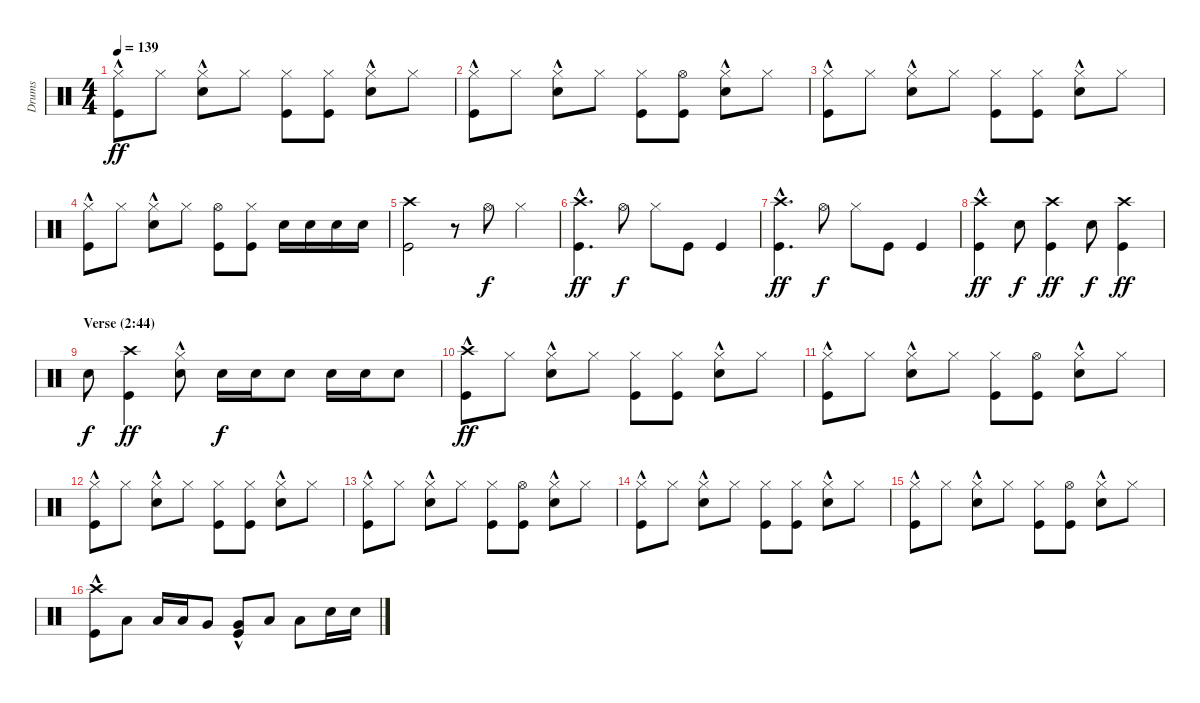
\track ("Drums" "Drums") {instrument percussion}
\staff {score}
\articulation defaults
\ts (4 4)
\tempo 139
\clef neutral
\ks c
("Hi-Hat (closed)" "Kick (hit)"{hac}).8{dy ff} "Hi-Hat (closed)".8 ("Hi-Hat (closed)" "Snare (hit) 2"{hac}).8 "Hi-Hat (closed)".8 ("Hi-Hat (closed)" "Kick (hit)").8 ("Hi-Hat (closed)" "Kick (hit)").8 ("Hi-Hat (closed)" "Snare (hit) 2"{hac}).8 "Hi-Hat (closed)".8 |
("Hi-Hat (closed)" "Kick (hit)"{hac}).8 "Hi-Hat (closed)".8 ("Hi-Hat (closed)" "Snare (hit) 2"{hac}).8 "Hi-Hat (closed)".8 ("Hi-Hat (closed)" "Kick (hit)").8 ("Hi-Hat (open)" "Kick (hit)").8 ("Hi-Hat (closed)" "Snare (hit) 2"{hac}).8 "Hi-Hat (closed)".8 |
("Hi-Hat (closed)" "Kick (hit)"{hac}).8 "Hi-Hat (closed)".8 ("Hi-Hat (closed)" "Snare (hit) 2"{hac}).8 "Hi-Hat (closed)".8 ("Hi-Hat (closed)" "Kick (hit)").8 ("Hi-Hat (closed)" "Kick (hit)").8 ("Hi-Hat (closed)" "Snare (hit) 2"{hac}).8 "Hi-Hat (closed)".8 |
("Hi-Hat (closed)" "Kick (hit)"{hac}).8 "Hi-Hat (closed)".8 ("Hi-Hat (closed)" "Snare (hit) 2"{hac}).8 "Hi-Hat (closed)".8 ("Hi-Hat (open)" "Kick (hit)").8 ("Hi-Hat (closed)" "Kick (hit)").8 "Snare (hit) 2".16 "Snare (hit) 2".16 "Snare (hit) 2".16 "Snare (hit) 2".16 |
("Crash high (hit)" "Kick (hit)").2 r.8 "Hi-Hat (open)".8{dy f} "Hi-Hat (closed)".4 |
("Crash high (hit)"{hac} "Kick (hit)"{hac}).4{d dy ff} "Hi-Hat (open)".8{dy f} "Hi-Hat (closed)".8 "Kick (hit)".8 "Kick (hit)".4 |
("Crash high (hit)"{hac} "Kick (hit)"{hac}).4{d dy ff} "Hi-Hat (open)".8{dy f} "Hi-Hat (closed)".8 "Kick (hit)".8 "Kick (hit)".4 |
("Crash high (hit)" "Kick (hit)"{hac}).4{dy ff} "Snare (hit) 2".8{dy f} ("Crash high (hit)" "Kick (hit)").4{dy ff} "Snare (hit) 2".8{dy f} ("Crash high (hit)" "Kick (hit)").4{dy ff} |
\section ("" "Verse (2:44)")
"Snare (hit) 2".8{dy f} ("Crash high (hit)" "Kick (hit)").4{dy ff} ("Hi-Hat (closed)" "Snare (hit) 2"{hac}).8 "Snare (hit) 2".16{dy f} "Snare (hit) 2".16 "Snare (hit) 2".8 "Snare (hit) 2".16 "Snare (hit) 2".16 "Snare (hit) 2".8 |
("Crash high (hit)" "Kick (hit)"{hac}).8{dy ff} "Hi-Hat (closed)".8 ("Hi-Hat (closed)" "Snare (hit) 2"{hac}).8 "Hi-Hat (closed)".8 ("Hi-Hat (closed)" "Kick (hit)").8 ("Hi-Hat (closed)" "Kick (hit)").8 ("Hi-Hat (closed)" "Snare (hit) 2"{hac}).8 "Hi-Hat (closed)".8 |
("Hi-Hat (closed)" "Kick (hit)"{hac}).8 "Hi-Hat (closed)".8 ("Hi-Hat (closed)" "Snare (hit) 2"{hac}).8 "Hi-Hat (closed)".8 ("Hi-Hat (closed)" "Kick (hit)").8 ("Hi-Hat (open)" "Kick (hit)").8 ("Hi-Hat (closed)" "Snare (hit) 2"{hac}).8 "Hi-Hat (closed)".8 |
("Hi-Hat (closed)" "Kick (hit)"{hac}).8 "Hi-Hat (closed)".8 ("Hi-Hat (closed)" "Snare (hit) 2"{hac}).8 "Hi-Hat (closed)".8 ("Hi-Hat (closed)" "Kick (hit)").8 ("Hi-Hat (closed)" "Kick (hit)").8 ("Hi-Hat (closed)" "Snare (hit) 2"{hac}).8 "Hi-Hat (closed)".8 |
("Hi-Hat (closed)" "Kick (hit)"{hac}).8 "Hi-Hat (closed)".8 ("Hi-Hat (closed)" "Snare (hit) 2"{hac}).8 "Hi-Hat (closed)".8 ("Hi-Hat (closed)" "Kick (hit)").8 ("Hi-Hat (open)" "Kick (hit)").8 ("Hi-Hat (closed)" "Snare (hit) 2"{hac}).8 "Hi-Hat (closed)".8 |
("Hi-Hat (closed)" "Kick (hit)"{hac}).8 "Hi-Hat (closed)".8 ("Hi-Hat (closed)" "Snare (hit) 2"{hac}).8 "Hi-Hat (closed)".8 ("Hi-Hat (closed)" "Kick (hit)").8 ("Hi-Hat (closed)" "Kick (hit)").8 ("Hi-Hat (closed)" "Snare (hit) 2"{hac}).8 "Hi-Hat (closed)".8 |
("Hi-Hat (closed)" "Kick (hit)"{hac}).8 "Hi-Hat (closed)".8 ("Hi-Hat (closed)" "Snare (hit) 2"{hac}).8 "Hi-Hat (closed)".8 ("Hi-Hat (closed)" "Kick (hit)").8 ("Hi-Hat (open)" "Kick (hit)").8 ("Hi-Hat (closed)" "Snare (hit) 2"{hac}).8 "Hi-Hat (closed)".8 |
("Crash high (hit)" "Kick (hit)"{hac}).8 "Low Tom (hit)".8 "Low Tom (hit)".16 "Low Tom (hit)".16 "Very Low Tom (hit)".8 ("Very Low Tom (hit)" "Kick (hit)"{hac}).8 "Low Floor Tom (hit)".8 "Low Floor Tom (hit)".8 "Snare (hit) 2".16 "Snare (hit) 2".16
